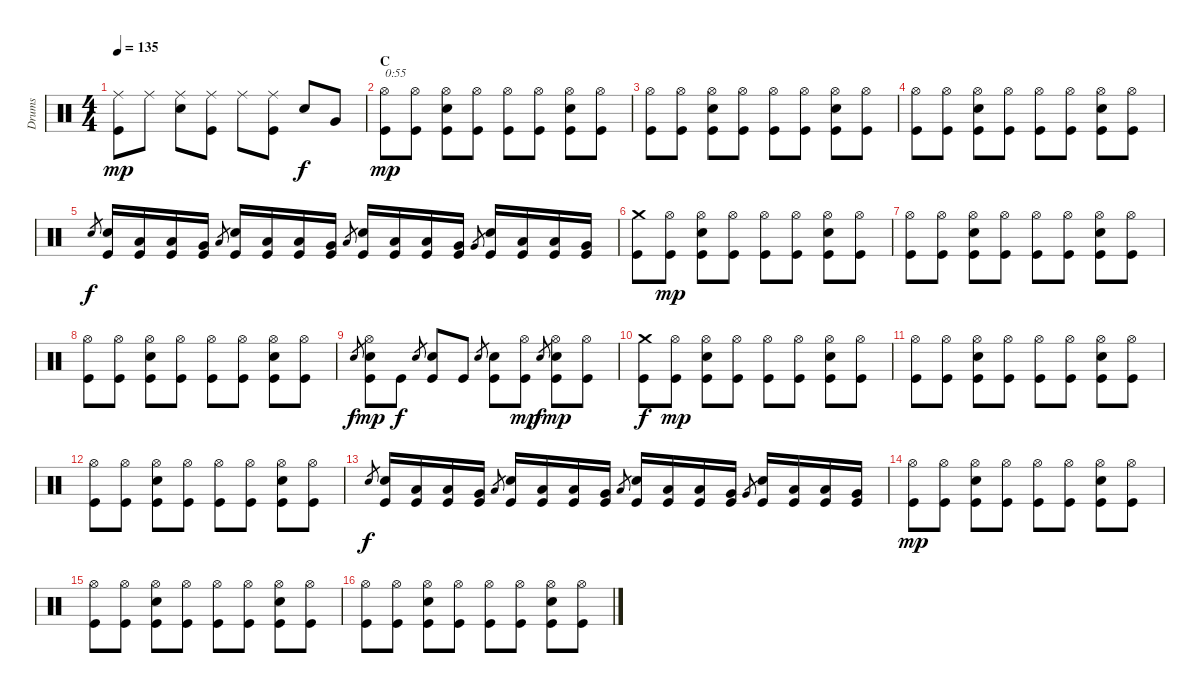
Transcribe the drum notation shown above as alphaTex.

\track ("Drums" "Drums") {instrument percussion}
\staff {score}
\articulation defaults
\ts (4 4)
\tempo 135
\clef neutral
\ks c
("Ride (middle)" "Kick (hit)").8{dy mp} "Ride (middle)".8 ("Ride (middle)" "Electric Snare (hit)").8 ("Ride (middle)" "Kick (hit)").8 "Ride (middle)".8 ("Ride (middle)" "Kick (hit)").8 "Electric Snare (hit)".8{dy f} "Very Low Tom (hit)".8 |
\section ("" "C")
("Hi-Hat (open)" "Kick (hit)").8{txt "0:55" dy mp} ("Hi-Hat (open)" "Kick (hit)").8 ("Hi-Hat (open)" "Electric Snare (hit)" "Kick (hit)").8 ("Hi-Hat (open)" "Kick (hit)").8 ("Hi-Hat (open)" "Kick (hit)").8 ("Hi-Hat (open)" "Kick (hit)").8 ("Hi-Hat (open)" "Electric Snare (hit)" "Kick (hit)").8 ("Hi-Hat (open)" "Kick (hit)").8 |
("Hi-Hat (open)" "Kick (hit)").8 ("Hi-Hat (open)" "Kick (hit)").8 ("Hi-Hat (open)" "Electric Snare (hit)" "Kick (hit)").8 ("Hi-Hat (open)" "Kick (hit)").8 ("Hi-Hat (open)" "Kick (hit)").8 ("Hi-Hat (open)" "Kick (hit)").8 ("Hi-Hat (open)" "Electric Snare (hit)" "Kick (hit)").8 ("Hi-Hat (open)" "Kick (hit)").8 |
("Hi-Hat (open)" "Kick (hit)").8 ("Hi-Hat (open)" "Kick (hit)").8 ("Hi-Hat (open)" "Electric Snare (hit)" "Kick (hit)").8 ("Hi-Hat (open)" "Kick (hit)").8 ("Hi-Hat (open)" "Kick (hit)").8 ("Hi-Hat (open)" "Kick (hit)").8 ("Hi-Hat (open)" "Electric Snare (hit)" "Kick (hit)").8 ("Hi-Hat (open)" "Kick (hit)").8 |
"Electric Snare (hit)".8{gr dy f} ("Electric Snare (hit)" "Kick (hit)").16 ("Low Tom (hit)" "Kick (hit)").16 ("Low Tom (hit)" "Kick (hit)").16 ("Very Low Tom (hit)" "Kick (hit)").16 "Low Tom (hit)".8{gr} ("Electric Snare (hit)" "Kick (hit)").16 ("Low Tom (hit)" "Kick (hit)").16 ("Low Tom (hit)" "Kick (hit)").16 ("Very Low Tom (hit)" "Kick (hit)").16 "Low Tom (hit)".8{gr} ("Electric Snare (hit)" "Kick (hit)").16 ("Low Tom (hit)" "Kick (hit)").16 ("Low Tom (hit)" "Kick (hit)").16 ("Very Low Tom (hit)" "Kick (hit)").16 "Very Low Tom (hit)".8{gr} ("Electric Snare (hit)" "Kick (hit)").16 ("Low Tom (hit)" "Kick (hit)").16 ("Low Tom (hit)" "Kick (hit)").16 ("Very Low Tom (hit)" "Kick (hit)").16 |
("Crash medium (hit)" "Kick (hit)").8 ("Hi-Hat (open)" "Kick (hit)").8{dy mp} ("Hi-Hat (open)" "Electric Snare (hit)" "Kick (hit)").8 ("Hi-Hat (open)" "Kick (hit)").8 ("Hi-Hat (open)" "Kick (hit)").8 ("Hi-Hat (open)" "Kick (hit)").8 ("Hi-Hat (open)" "Electric Snare (hit)" "Kick (hit)").8 ("Hi-Hat (open)" "Kick (hit)").8 |
("Hi-Hat (open)" "Kick (hit)").8 ("Hi-Hat (open)" "Kick (hit)").8 ("Hi-Hat (open)" "Electric Snare (hit)" "Kick (hit)").8 ("Hi-Hat (open)" "Kick (hit)").8 ("Hi-Hat (open)" "Kick (hit)").8 ("Hi-Hat (open)" "Kick (hit)").8 ("Hi-Hat (open)" "Electric Snare (hit)" "Kick (hit)").8 ("Hi-Hat (open)" "Kick (hit)").8 |
("Hi-Hat (open)" "Kick (hit)").8 ("Hi-Hat (open)" "Kick (hit)").8 ("Hi-Hat (open)" "Electric Snare (hit)" "Kick (hit)").8 ("Hi-Hat (open)" "Kick (hit)").8 ("Hi-Hat (open)" "Kick (hit)").8 ("Hi-Hat (open)" "Kick (hit)").8 ("Hi-Hat (open)" "Electric Snare (hit)" "Kick (hit)").8 ("Hi-Hat (open)" "Kick (hit)").8 |
"Electric Snare (hit)".8{gr dy f} ("Hi-Hat (open)" "Electric Snare (hit)" "Kick (hit)").8{dy mp} "Kick (hit)".8{dy f} "Electric Snare (hit)".8{gr} ("Electric Snare (hit)" "Kick (hit)").8 "Kick (hit)".8 "Electric Snare (hit)".8{gr} ("Electric Snare (hit)" "Kick (hit)").8 ("Hi-Hat (open)" "Kick (hit)").8{dy mp} "Electric Snare (hit)".8{gr dy f} ("Hi-Hat (open)" "Electric Snare (hit)" "Kick (hit)").8{dy mp} ("Hi-Hat (open)" "Kick (hit)").8 |
("Crash medium (hit)" "Kick (hit)").8{dy f} ("Hi-Hat (open)" "Kick (hit)").8{dy mp} ("Hi-Hat (open)" "Electric Snare (hit)" "Kick (hit)").8 ("Hi-Hat (open)" "Kick (hit)").8 ("Hi-Hat (open)" "Kick (hit)").8 ("Hi-Hat (open)" "Kick (hit)").8 ("Hi-Hat (open)" "Electric Snare (hit)" "Kick (hit)").8 ("Hi-Hat (open)" "Kick (hit)").8 |
("Hi-Hat (open)" "Kick (hit)").8 ("Hi-Hat (open)" "Kick (hit)").8 ("Hi-Hat (open)" "Electric Snare (hit)" "Kick (hit)").8 ("Hi-Hat (open)" "Kick (hit)").8 ("Hi-Hat (open)" "Kick (hit)").8 ("Hi-Hat (open)" "Kick (hit)").8 ("Hi-Hat (open)" "Electric Snare (hit)" "Kick (hit)").8 ("Hi-Hat (open)" "Kick (hit)").8 |
("Hi-Hat (open)" "Kick (hit)").8 ("Hi-Hat (open)" "Kick (hit)").8 ("Hi-Hat (open)" "Electric Snare (hit)" "Kick (hit)").8 ("Hi-Hat (open)" "Kick (hit)").8 ("Hi-Hat (open)" "Kick (hit)").8 ("Hi-Hat (open)" "Kick (hit)").8 ("Hi-Hat (open)" "Electric Snare (hit)" "Kick (hit)").8 ("Hi-Hat (open)" "Kick (hit)").8 |
"Electric Snare (hit)".8{gr dy f} ("Electric Snare (hit)" "Kick (hit)").16 ("Low Tom (hit)" "Kick (hit)").16 ("Low Tom (hit)" "Kick (hit)").16 ("Very Low Tom (hit)" "Kick (hit)").16 "Low Tom (hit)".8{gr} ("Electric Snare (hit)" "Kick (hit)").16 ("Low Tom (hit)" "Kick (hit)").16 ("Low Tom (hit)" "Kick (hit)").16 ("Very Low Tom (hit)" "Kick (hit)").16 "Low Tom (hit)".8{gr} ("Electric Snare (hit)" "Kick (hit)").16 ("Low Tom (hit)" "Kick (hit)").16 ("Low Tom (hit)" "Kick (hit)").16 ("Very Low Tom (hit)" "Kick (hit)").16 "Very Low Tom (hit)".8{gr} ("Electric Snare (hit)" "Kick (hit)").16 ("Low Tom (hit)" "Kick (hit)").16 ("Low Tom (hit)" "Kick (hit)").16 ("Very Low Tom (hit)" "Kick (hit)").16 |
("Hi-Hat (open)" "Kick (hit)").8{dy mp} ("Hi-Hat (open)" "Kick (hit)").8 ("Hi-Hat (open)" "Electric Snare (hit)" "Kick (hit)").8 ("Hi-Hat (open)" "Kick (hit)").8 ("Hi-Hat (open)" "Kick (hit)").8 ("Hi-Hat (open)" "Kick (hit)").8 ("Hi-Hat (open)" "Electric Snare (hit)" "Kick (hit)").8 ("Hi-Hat (open)" "Kick (hit)").8 |
("Hi-Hat (open)" "Kick (hit)").8 ("Hi-Hat (open)" "Kick (hit)").8 ("Hi-Hat (open)" "Electric Snare (hit)" "Kick (hit)").8 ("Hi-Hat (open)" "Kick (hit)").8 ("Hi-Hat (open)" "Kick (hit)").8 ("Hi-Hat (open)" "Kick (hit)").8 ("Hi-Hat (open)" "Electric Snare (hit)" "Kick (hit)").8 ("Hi-Hat (open)" "Kick (hit)").8 |
("Hi-Hat (open)" "Kick (hit)").8 ("Hi-Hat (open)" "Kick (hit)").8 ("Hi-Hat (open)" "Electric Snare (hit)" "Kick (hit)").8 ("Hi-Hat (open)" "Kick (hit)").8 ("Hi-Hat (open)" "Kick (hit)").8 ("Hi-Hat (open)" "Kick (hit)").8 ("Hi-Hat (open)" "Electric Snare (hit)" "Kick (hit)").8 ("Hi-Hat (open)" "Kick (hit)").8
